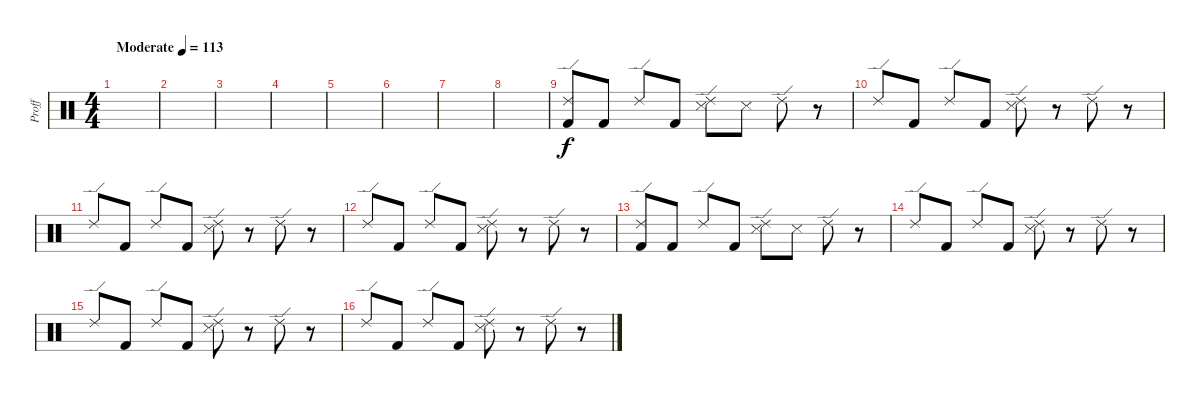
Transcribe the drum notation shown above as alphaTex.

\track ("Proff" "Proff") {instrument percussion}
\staff {score}
\articulation defaults
\ts (4 4)
\tempo (113 "Moderate")
\clef neutral
\ks c
|
|
|
|
|
|
|
|
("Ride (edge) 2" "Kick (hit) 2").8 "Kick (hit) 2".8 "Ride (edge) 2".8 "Kick (hit) 2".8 ("Ride (edge) 2" "Metronome (hit)").8 "Metronome (hit)".8 "Ride (edge) 2".8 r.8 |
"Ride (edge) 2".8 "Kick (hit) 2".8 "Ride (edge) 2".8 "Kick (hit) 2".8 ("Ride (edge) 2" "Metronome (hit)").8 r.8 "Ride (edge) 2".8 r.8 |
"Ride (edge) 2".8 "Kick (hit) 2".8 "Ride (edge) 2".8 "Kick (hit) 2".8 ("Ride (edge) 2" "Metronome (hit)").8 r.8 "Ride (edge) 2".8 r.8 |
"Ride (edge) 2".8 "Kick (hit) 2".8 "Ride (edge) 2".8 "Kick (hit) 2".8 ("Ride (edge) 2" "Metronome (hit)").8 r.8 "Ride (edge) 2".8 r.8 |
("Ride (edge) 2" "Kick (hit) 2").8 "Kick (hit) 2".8 "Ride (edge) 2".8 "Kick (hit) 2".8 ("Ride (edge) 2" "Metronome (hit)").8 "Metronome (hit)".8 "Ride (edge) 2".8 r.8 |
"Ride (edge) 2".8 "Kick (hit) 2".8 "Ride (edge) 2".8 "Kick (hit) 2".8 ("Ride (edge) 2" "Metronome (hit)").8 r.8 "Ride (edge) 2".8 r.8 |
"Ride (edge) 2".8 "Kick (hit) 2".8 "Ride (edge) 2".8 "Kick (hit) 2".8 ("Ride (edge) 2" "Metronome (hit)").8 r.8 "Ride (edge) 2".8 r.8 |
"Ride (edge) 2".8 "Kick (hit) 2".8 "Ride (edge) 2".8 "Kick (hit) 2".8 ("Ride (edge) 2" "Metronome (hit)").8 r.8 "Ride (edge) 2".8 r.8
